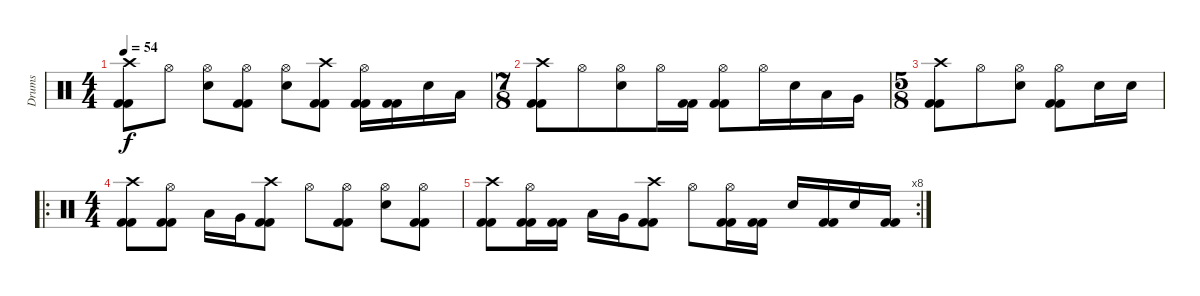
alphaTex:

\track ("Drums" "Drums") {instrument percussion}
\staff {score}
\articulation defaults
\ts (4 4)
\tempo 54
\clef neutral
\ks c
("Kick (hit) 2" "Kick (hit) 2" "Crash high (hit)").8{dy f} "Hi-Hat (open)".8 ("Snare (hit) 2" "Hi-Hat (open)").8 ("Kick (hit) 2" "Kick (hit) 2" "Hi-Hat (open)").8 ("Snare (hit) 2" "Hi-Hat (open)").8 ("Kick (hit) 2" "Kick (hit) 2" "Crash high (hit)").8 ("Kick (hit) 2" "Kick (hit) 2" "Hi-Hat (open)").16 ("Kick (hit) 2" "Kick (hit) 2").16 "Snare (hit) 2".16 "Low Tom (hit)".16 |
\ts (7 8)
("Kick (hit) 2" "Kick (hit) 2" "Crash high (hit)").8 "Hi-Hat (open)".8 ("Snare (hit) 2" "Hi-Hat (open)").8 "Hi-Hat (open)".16 ("Kick (hit) 2" "Kick (hit) 2").16 ("Kick (hit) 2" "Kick (hit) 2" "Hi-Hat (open)").8 "Hi-Hat (open)".16 "Snare (hit) 2".16 "Low Tom (hit)".16 "Very Low Tom (hit)".16 |
\ts (5 8)
("Kick (hit) 2" "Kick (hit) 2" "Crash high (hit)").8 "Hi-Hat (open)".8 ("Snare (hit) 2" "Hi-Hat (open)").8 ("Kick (hit) 2" "Kick (hit) 2" "Hi-Hat (open)").8 "Snare (hit) 2".16 "Snare (hit) 2".16 |
\ro
\ts (4 4)
("Kick (hit) 2" "Kick (hit) 2" "Crash high (hit)").8 ("Kick (hit) 2" "Kick (hit) 2" "Hi-Hat (open)").8 "Low Tom (hit)".16 "Very Low Tom (hit)".16 ("Kick (hit) 2" "Kick (hit) 2" "Crash high (hit)").8 "Hi-Hat (open)".8 ("Kick (hit) 2" "Kick (hit) 2" "Hi-Hat (open)").8 ("Snare (hit) 2" "Hi-Hat (open)").8 ("Kick (hit) 2" "Kick (hit) 2" "Hi-Hat (open)").8 |
\rc 8
("Kick (hit) 2" "Kick (hit) 2" "Crash high (hit)").8 ("Kick (hit) 2" "Kick (hit) 2" "Hi-Hat (open)").16 ("Kick (hit) 2" "Kick (hit) 2").16 "Low Tom (hit)".16 "Very Low Tom (hit)".16 ("Kick (hit) 2" "Kick (hit) 2" "Crash high (hit)").8 "Hi-Hat (open)".8 ("Kick (hit) 2" "Kick (hit) 2" "Hi-Hat (open)").16 ("Kick (hit) 2" "Kick (hit) 2").16 "Snare (hit) 2".16 ("Kick (hit) 2" "Kick (hit) 2").16 "Snare (hit) 2".16 ("Kick (hit) 2" "Kick (hit) 2").16
